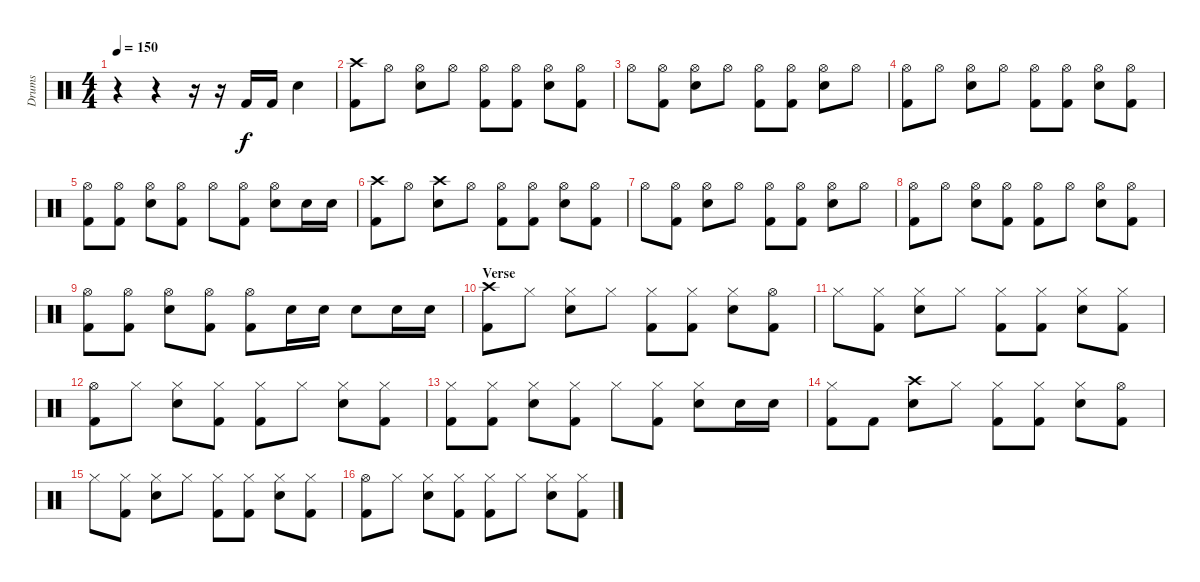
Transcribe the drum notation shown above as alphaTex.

\track ("Drums" "Drums") {instrument percussion}
\staff {score}
\articulation defaults
\ts (4 4)
\tempo 150
\clef neutral
\ks c
r.4{dy f} r.4 r.16 r.16 "Kick (hit) 2".16 "Kick (hit) 2".16 "Electric Snare (hit)".4 |
("Crash high (hit)" "Kick (hit) 2").8 "Hi-Hat (open)".8 ("Hi-Hat (open)" "Electric Snare (hit)").8 "Hi-Hat (open)".8 ("Hi-Hat (open)" "Kick (hit) 2").8 ("Hi-Hat (open)" "Kick (hit) 2").8 ("Hi-Hat (open)" "Electric Snare (hit)").8 ("Hi-Hat (open)" "Kick (hit) 2").8 |
"Hi-Hat (open)".8 ("Hi-Hat (open)" "Kick (hit) 2").8 ("Hi-Hat (open)" "Electric Snare (hit)").8 "Hi-Hat (open)".8 ("Hi-Hat (open)" "Kick (hit) 2").8 ("Hi-Hat (open)" "Kick (hit) 2").8 ("Hi-Hat (open)" "Electric Snare (hit)").8 "Hi-Hat (open)".8 |
("Hi-Hat (open)" "Kick (hit) 2").8 "Hi-Hat (open)".8 ("Hi-Hat (open)" "Electric Snare (hit)").8 "Hi-Hat (open)".8 ("Hi-Hat (open)" "Kick (hit) 2").8 ("Hi-Hat (open)" "Kick (hit) 2").8 ("Hi-Hat (open)" "Electric Snare (hit)").8 ("Hi-Hat (open)" "Kick (hit) 2").8 |
("Hi-Hat (open)" "Kick (hit) 2").8 ("Hi-Hat (open)" "Kick (hit) 2").8 ("Hi-Hat (open)" "Electric Snare (hit)").8 ("Hi-Hat (open)" "Kick (hit) 2").8 "Hi-Hat (open)".8 ("Hi-Hat (open)" "Kick (hit) 2").8 ("Hi-Hat (open)" "Electric Snare (hit)").8 "Electric Snare (hit)".16 "Electric Snare (hit)".16 |
("Crash high (hit)" "Kick (hit) 2").8 "Hi-Hat (open)".8 ("Crash high (hit)" "Electric Snare (hit)").8 "Hi-Hat (open)".8 ("Hi-Hat (open)" "Kick (hit) 2").8 ("Hi-Hat (open)" "Kick (hit) 2").8 ("Hi-Hat (open)" "Electric Snare (hit)").8 ("Hi-Hat (open)" "Kick (hit) 2").8 |
"Hi-Hat (open)".8 ("Hi-Hat (open)" "Kick (hit) 2").8 ("Hi-Hat (open)" "Electric Snare (hit)").8 "Hi-Hat (open)".8 ("Hi-Hat (open)" "Kick (hit) 2").8 ("Hi-Hat (open)" "Kick (hit) 2").8 ("Hi-Hat (open)" "Electric Snare (hit)").8 "Hi-Hat (open)".8 |
("Hi-Hat (open)" "Kick (hit) 2").8 "Hi-Hat (open)".8 ("Hi-Hat (open)" "Electric Snare (hit)").8 ("Hi-Hat (open)" "Kick (hit) 2").8 ("Hi-Hat (open)" "Kick (hit) 2").8 "Hi-Hat (open)".8 ("Hi-Hat (open)" "Electric Snare (hit)").8 ("Hi-Hat (open)" "Kick (hit) 2").8 |
("Hi-Hat (open)" "Kick (hit) 2").8 ("Hi-Hat (open)" "Kick (hit) 2").8 ("Hi-Hat (open)" "Electric Snare (hit)").8 ("Hi-Hat (open)" "Kick (hit) 2").8 ("Hi-Hat (open)" "Kick (hit) 2").8 "Electric Snare (hit)".16 "Electric Snare (hit)".16 "Electric Snare (hit)".8 "Electric Snare (hit)".16 "Electric Snare (hit)".16 |
\section ("" "Verse")
("Crash high (hit)" "Kick (hit) 2").8 "Hi-Hat (closed)".8 ("Hi-Hat (closed)" "Electric Snare (hit)").8 "Hi-Hat (closed)".8 ("Hi-Hat (closed)" "Kick (hit) 2").8 ("Hi-Hat (closed)" "Kick (hit) 2").8 ("Hi-Hat (closed)" "Electric Snare (hit)").8 ("Hi-Hat (open)" "Kick (hit) 2").8 |
"Hi-Hat (closed)".8 ("Hi-Hat (closed)" "Kick (hit) 2").8 ("Hi-Hat (closed)" "Electric Snare (hit)").8 "Hi-Hat (closed)".8 ("Hi-Hat (closed)" "Kick (hit) 2").8 ("Hi-Hat (closed)" "Kick (hit) 2").8 ("Hi-Hat (closed)" "Electric Snare (hit)").8 ("Hi-Hat (closed)" "Kick (hit) 2").8 |
("Hi-Hat (open)" "Kick (hit) 2").8 "Hi-Hat (closed)".8 ("Hi-Hat (closed)" "Electric Snare (hit)").8 ("Hi-Hat (closed)" "Kick (hit) 2").8 ("Hi-Hat (closed)" "Kick (hit) 2").8 "Hi-Hat (closed)".8 ("Hi-Hat (closed)" "Electric Snare (hit)").8 ("Hi-Hat (closed)" "Kick (hit) 2").8 |
("Hi-Hat (closed)" "Kick (hit) 2").8 ("Hi-Hat (closed)" "Kick (hit) 2").8 ("Hi-Hat (closed)" "Electric Snare (hit)").8 ("Hi-Hat (closed)" "Kick (hit) 2").8 "Hi-Hat (closed)".8 ("Hi-Hat (closed)" "Kick (hit) 2").8 ("Hi-Hat (closed)" "Electric Snare (hit)").8 "Electric Snare (hit)".16 "Electric Snare (hit)".16 |
("Hi-Hat (closed)" "Kick (hit) 2").8 "Kick (hit) 2".8 ("Crash high (hit)" "Electric Snare (hit)").8 "Hi-Hat (closed)".8 ("Hi-Hat (closed)" "Kick (hit) 2").8 ("Hi-Hat (closed)" "Kick (hit) 2").8 ("Hi-Hat (closed)" "Electric Snare (hit)").8 ("Hi-Hat (open)" "Kick (hit) 2").8 |
"Hi-Hat (closed)".8 ("Hi-Hat (closed)" "Kick (hit) 2").8 ("Hi-Hat (closed)" "Electric Snare (hit)").8 "Hi-Hat (closed)".8 ("Hi-Hat (closed)" "Kick (hit) 2").8 ("Hi-Hat (closed)" "Kick (hit) 2").8 ("Hi-Hat (closed)" "Electric Snare (hit)").8 ("Hi-Hat (closed)" "Kick (hit) 2").8 |
("Hi-Hat (open)" "Kick (hit) 2").8 "Hi-Hat (closed)".8 ("Hi-Hat (closed)" "Electric Snare (hit)").8 ("Hi-Hat (closed)" "Kick (hit) 2").8 ("Hi-Hat (closed)" "Kick (hit) 2").8 "Hi-Hat (closed)".8 ("Hi-Hat (closed)" "Electric Snare (hit)").8 ("Hi-Hat (closed)" "Kick (hit) 2").8
